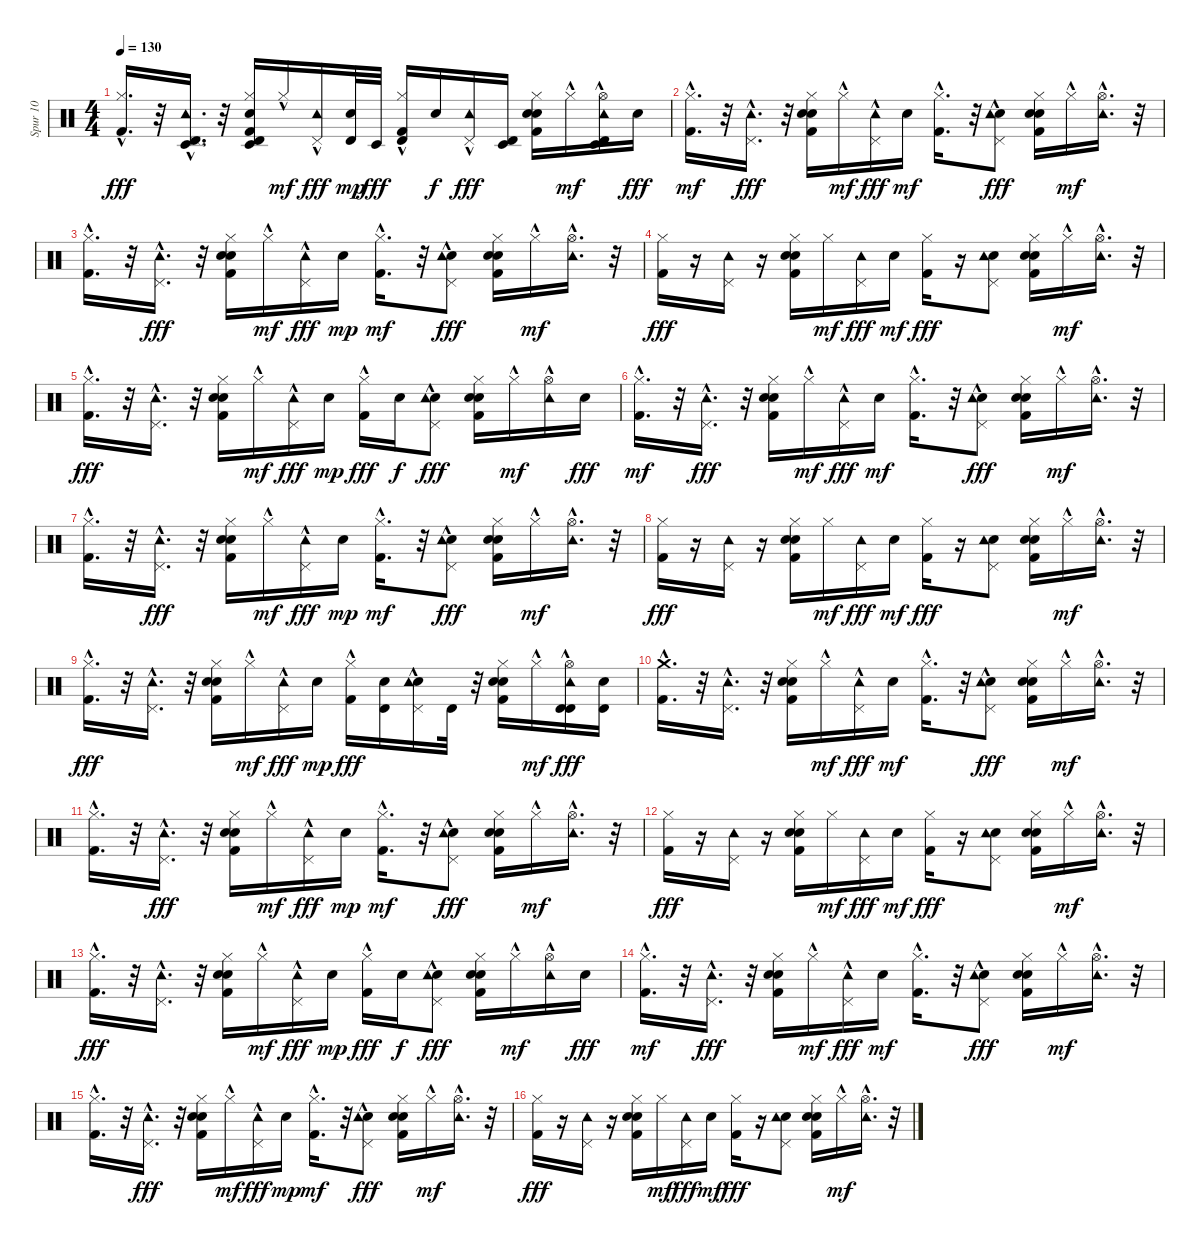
\track ("Spur 10" "Spur 10") {instrument percussion}
\staff {score}
\articulation defaults
\ts (4 4)
\tempo 130
\clef neutral
\ks c
("Hi-Hat (closed)"{hac} "Kick (hit) 2").16{d dy fff} r.32 ("Tambourine (hit)"{hac} "Pedal Hi-Hat (hit)"{hac} "Timbale high (hit)" "Timbale low (hit)").16{d} r.32 ("Hi-Hat (closed)" "Snare (hit) 2" "Kick (hit) 2" "Timbale low (hit)" "Timbale high (hit)").16 "Hi-Hat (closed)"{hac}.16{dy mf} ("Tambourine (hit)"{hac} "Pedal Hi-Hat (hit)"{hac}).16{dy fff} ("Timbale high (hit)" "Electric Snare (hit)").32{dy mp} "Timbale low (hit)".32{dy fff} ("Timbale high (hit)" "Hi-Hat (closed)"{hac} "Kick (hit) 2").16 "Snare (hit) 2".16{dy f} ("Tambourine (hit)"{hac} "Pedal Hi-Hat (hit)"{hac}).16{dy fff} ("Timbale high (hit)" "Timbale low (hit)").16 ("Hand Clap (hit)" "Snare (hit) 2" "Hi-Hat (closed)" "Kick (hit) 2").16 "Hi-Hat (closed)"{hac}.16{dy mf} ("Timbale low (hit)" "Timbale high (hit)" "Tambourine (hit)"{hac} "Hi-Hat (open)"{hac}).16 "Snare (hit) 2".16{dy fff} |
("Kick (hit) 2" "Hi-Hat (closed)"{hac}).16{d dy mf} r.32 ("Tambourine (hit)"{hac} "Pedal Hi-Hat (hit)"{hac}).16{d dy fff} r.32 ("Hand Clap (hit)" "Kick (hit) 2" "Hi-Hat (closed)" "Snare (hit) 2").16 "Hi-Hat (closed)"{hac}.16{dy mf} ("Tambourine (hit)"{hac} "Pedal Hi-Hat (hit)"{hac}).16{dy fff} "Electric Snare (hit)".16{dy mf} ("Kick (hit) 2" "Hi-Hat (closed)"{hac}).16{d} r.32 ("Hand Clap (hit)" "Tambourine (hit)"{hac} "Pedal Hi-Hat (hit)"{hac}).8{dy fff} ("Kick (hit) 2" "Hi-Hat (closed)" "Hand Clap (hit)" "Snare (hit) 2").16 "Hi-Hat (closed)"{hac}.16{dy mf} ("Tambourine (hit)"{hac} "Hi-Hat (open)"{hac}).16{d} r.32 |
("Kick (hit) 2" "Hi-Hat (closed)"{hac}).16{d} r.32 ("Tambourine (hit)"{hac} "Pedal Hi-Hat (hit)"{hac}).16{d dy fff} r.32 ("Hand Clap (hit)" "Hi-Hat (closed)" "Snare (hit) 2" "Kick (hit) 2").16 "Hi-Hat (closed)"{hac}.16{dy mf} ("Tambourine (hit)"{hac} "Pedal Hi-Hat (hit)"{hac}).16{dy fff} "Electric Snare (hit)".16{dy mp} ("Kick (hit) 2" "Hi-Hat (closed)"{hac}).16{d dy mf} r.32 ("Hand Clap (hit)" "Tambourine (hit)"{hac} "Pedal Hi-Hat (hit)"{hac}).8{dy fff} ("Hand Clap (hit)" "Hi-Hat (closed)" "Kick (hit) 2" "Snare (hit) 2").16 "Hi-Hat (closed)"{hac}.16{dy mf} ("Tambourine (hit)"{hac} "Hi-Hat (open)"{hac}).16{d} r.32 |
("Hi-Hat (closed)" "Kick (hit) 2").16{dy fff} r.16 ("Tambourine (hit)" "Pedal Hi-Hat (hit)").16 r.16 ("Hand Clap (hit)" "Snare (hit) 2" "Hi-Hat (closed)" "Kick (hit) 2").16 "Hi-Hat (closed)".16{dy mf} ("Tambourine (hit)" "Pedal Hi-Hat (hit)").16{dy fff} "Electric Snare (hit)".16{dy mf} ("Hi-Hat (closed)" "Kick (hit) 2").16{dy fff} r.16 ("Hand Clap (hit)" "Tambourine (hit)" "Pedal Hi-Hat (hit)").8 ("Hand Clap (hit)" "Snare (hit) 2" "Hi-Hat (closed)" "Kick (hit) 2").16 "Hi-Hat (closed)"{hac}.16{dy mf} ("Tambourine (hit)" "Hi-Hat (open)"{hac}).16{d} r.32 |
("Hi-Hat (closed)"{hac} "Kick (hit) 2").16{d dy fff} r.32 ("Tambourine (hit)"{hac} "Pedal Hi-Hat (hit)"{hac}).16{d} r.32 ("Hand Clap (hit)" "Hi-Hat (closed)" "Snare (hit) 2" "Kick (hit) 2").16 "Hi-Hat (closed)"{hac}.16{dy mf} ("Tambourine (hit)"{hac} "Pedal Hi-Hat (hit)"{hac}).16{dy fff} "Electric Snare (hit)".16{dy mp} ("Hi-Hat (closed)"{hac} "Kick (hit) 2").16{dy fff} "Snare (hit) 2".16{dy f} ("Hand Clap (hit)" "Tambourine (hit)"{hac} "Pedal Hi-Hat (hit)"{hac}).8{dy fff} ("Hand Clap (hit)" "Snare (hit) 2" "Hi-Hat (closed)" "Kick (hit) 2").16 "Hi-Hat (closed)"{hac}.16{dy mf} ("Tambourine (hit)"{hac} "Hi-Hat (open)"{hac}).16 "Snare (hit) 2".16{dy fff} |
("Kick (hit) 2" "Hi-Hat (closed)"{hac}).16{d dy mf} r.32 ("Tambourine (hit)"{hac} "Pedal Hi-Hat (hit)"{hac}).16{d dy fff} r.32 ("Hand Clap (hit)" "Kick (hit) 2" "Hi-Hat (closed)" "Snare (hit) 2").16 "Hi-Hat (closed)"{hac}.16{dy mf} ("Tambourine (hit)"{hac} "Pedal Hi-Hat (hit)"{hac}).16{dy fff} "Electric Snare (hit)".16{dy mf} ("Kick (hit) 2" "Hi-Hat (closed)"{hac}).16{d} r.32 ("Hand Clap (hit)" "Tambourine (hit)"{hac} "Pedal Hi-Hat (hit)"{hac}).8{dy fff} ("Hand Clap (hit)" "Kick (hit) 2" "Hi-Hat (closed)" "Snare (hit) 2").16 "Hi-Hat (closed)"{hac}.16{dy mf} ("Tambourine (hit)"{hac} "Hi-Hat (open)"{hac}).16{d} r.32 |
("Kick (hit) 2" "Hi-Hat (closed)"{hac}).16{d} r.32 ("Tambourine (hit)"{hac} "Pedal Hi-Hat (hit)"{hac}).16{d dy fff} r.32 ("Hand Clap (hit)" "Hi-Hat (closed)" "Snare (hit) 2" "Kick (hit) 2").16 "Hi-Hat (closed)"{hac}.16{dy mf} ("Tambourine (hit)"{hac} "Pedal Hi-Hat (hit)"{hac}).16{dy fff} "Electric Snare (hit)".16{dy mp} ("Kick (hit) 2" "Hi-Hat (closed)"{hac}).16{d dy mf} r.32 ("Hand Clap (hit)" "Tambourine (hit)"{hac} "Pedal Hi-Hat (hit)"{hac}).8{dy fff} ("Hand Clap (hit)" "Hi-Hat (closed)" "Kick (hit) 2" "Snare (hit) 2").16 "Hi-Hat (closed)"{hac}.16{dy mf} ("Tambourine (hit)"{hac} "Hi-Hat (open)"{hac}).16{d} r.32 |
("Hi-Hat (closed)" "Kick (hit) 2").16{dy fff} r.16 ("Tambourine (hit)" "Pedal Hi-Hat (hit)").16 r.16 ("Hand Clap (hit)" "Snare (hit) 2" "Hi-Hat (closed)" "Kick (hit) 2").16 "Hi-Hat (closed)".16{dy mf} ("Tambourine (hit)" "Pedal Hi-Hat (hit)").16{dy fff} "Electric Snare (hit)".16{dy mf} ("Hi-Hat (closed)" "Kick (hit) 2").16{dy fff} r.16 ("Hand Clap (hit)" "Tambourine (hit)" "Pedal Hi-Hat (hit)").8 ("Hand Clap (hit)" "Snare (hit) 2" "Hi-Hat (closed)" "Kick (hit) 2").16 "Hi-Hat (closed)"{hac}.16{dy mf} ("Tambourine (hit)" "Hi-Hat (open)"{hac}).16{d} r.32 |
("Hi-Hat (closed)"{hac} "Kick (hit) 2").16{d dy fff} r.32 ("Tambourine (hit)"{hac} "Pedal Hi-Hat (hit)"{hac}).16{d} r.32 ("Hand Clap (hit)" "Hi-Hat (closed)" "Snare (hit) 2" "Kick (hit) 2").16 "Hi-Hat (closed)"{hac}.16{dy mf} ("Tambourine (hit)"{hac} "Pedal Hi-Hat (hit)"{hac}).16{dy fff} "Electric Snare (hit)".16{dy mp} ("Hi-Hat (closed)"{hac} "Kick (hit) 2").16{dy fff} ("Snare (hit) 2" "Timbale high (hit)").16 ("Hand Clap (hit)" "Tambourine (hit)"{hac} "Pedal Hi-Hat (hit)"{hac}).16 "Timbale high (hit)".32 r.32 ("Hand Clap (hit)" "Snare (hit) 2" "Hi-Hat (closed)" "Kick (hit) 2").16 "Hi-Hat (closed)"{hac}.16{dy mf} ("Timbale high (hit)" "Tambourine (hit)"{hac} "Hi-Hat (open)"{hac} "Timbale high (hit)").16{dy fff} ("Snare (hit) 2" "Timbale high (hit)").16 |
("Crash medium (hit)"{hac} "Kick (hit) 2").16{d} r.32 ("Tambourine (hit)"{hac} "Pedal Hi-Hat (hit)"{hac}).16{d} r.32 ("Hand Clap (hit)" "Kick (hit) 2" "Hi-Hat (closed)" "Snare (hit) 2").16 "Hi-Hat (closed)"{hac}.16{dy mf} ("Tambourine (hit)"{hac} "Pedal Hi-Hat (hit)"{hac}).16{dy fff} "Electric Snare (hit)".16{dy mf} ("Kick (hit) 2" "Hi-Hat (closed)"{hac}).16{d} r.32 ("Hand Clap (hit)" "Tambourine (hit)"{hac} "Pedal Hi-Hat (hit)"{hac}).8{dy fff} ("Hand Clap (hit)" "Kick (hit) 2" "Hi-Hat (closed)" "Snare (hit) 2").16 "Hi-Hat (closed)"{hac}.16{dy mf} ("Tambourine (hit)"{hac} "Hi-Hat (open)"{hac}).16{d} r.32 |
("Kick (hit) 2" "Hi-Hat (closed)"{hac}).16{d} r.32 ("Tambourine (hit)"{hac} "Pedal Hi-Hat (hit)"{hac}).16{d dy fff} r.32 ("Hand Clap (hit)" "Hi-Hat (closed)" "Snare (hit) 2" "Kick (hit) 2").16 "Hi-Hat (closed)"{hac}.16{dy mf} ("Tambourine (hit)"{hac} "Pedal Hi-Hat (hit)"{hac}).16{dy fff} "Electric Snare (hit)".16{dy mp} ("Kick (hit) 2" "Hi-Hat (closed)"{hac}).16{d dy mf} r.32 ("Hand Clap (hit)" "Tambourine (hit)"{hac} "Pedal Hi-Hat (hit)"{hac}).8{dy fff} ("Hand Clap (hit)" "Hi-Hat (closed)" "Kick (hit) 2" "Snare (hit) 2").16 "Hi-Hat (closed)"{hac}.16{dy mf} ("Tambourine (hit)"{hac} "Hi-Hat (open)"{hac}).16{d} r.32 |
("Hi-Hat (closed)" "Kick (hit) 2").16{dy fff} r.16 ("Tambourine (hit)" "Pedal Hi-Hat (hit)").16 r.16 ("Hand Clap (hit)" "Snare (hit) 2" "Hi-Hat (closed)" "Kick (hit) 2").16 "Hi-Hat (closed)".16{dy mf} ("Tambourine (hit)" "Pedal Hi-Hat (hit)").16{dy fff} "Electric Snare (hit)".16{dy mf} ("Hi-Hat (closed)" "Kick (hit) 2").16{dy fff} r.16 ("Hand Clap (hit)" "Tambourine (hit)" "Pedal Hi-Hat (hit)").8 ("Hand Clap (hit)" "Snare (hit) 2" "Hi-Hat (closed)" "Kick (hit) 2").16 "Hi-Hat (closed)"{hac}.16{dy mf} ("Tambourine (hit)" "Hi-Hat (open)"{hac}).16{d} r.32 |
("Hi-Hat (closed)"{hac} "Kick (hit) 2").16{d dy fff} r.32 ("Tambourine (hit)"{hac} "Pedal Hi-Hat (hit)"{hac}).16{d} r.32 ("Hand Clap (hit)" "Hi-Hat (closed)" "Snare (hit) 2" "Kick (hit) 2").16 "Hi-Hat (closed)"{hac}.16{dy mf} ("Tambourine (hit)"{hac} "Pedal Hi-Hat (hit)"{hac}).16{dy fff} "Electric Snare (hit)".16{dy mp} ("Hi-Hat (closed)"{hac} "Kick (hit) 2").16{dy fff} "Snare (hit) 2".16{dy f} ("Hand Clap (hit)" "Tambourine (hit)"{hac} "Pedal Hi-Hat (hit)"{hac}).8{dy fff} ("Hand Clap (hit)" "Snare (hit) 2" "Hi-Hat (closed)" "Kick (hit) 2").16 "Hi-Hat (closed)"{hac}.16{dy mf} ("Tambourine (hit)"{hac} "Hi-Hat (open)"{hac}).16 "Snare (hit) 2".16{dy fff} |
("Kick (hit) 2" "Hi-Hat (closed)"{hac}).16{d dy mf} r.32 ("Tambourine (hit)"{hac} "Pedal Hi-Hat (hit)"{hac}).16{d dy fff} r.32 ("Hand Clap (hit)" "Kick (hit) 2" "Hi-Hat (closed)" "Snare (hit) 2").16 "Hi-Hat (closed)"{hac}.16{dy mf} ("Tambourine (hit)"{hac} "Pedal Hi-Hat (hit)"{hac}).16{dy fff} "Electric Snare (hit)".16{dy mf} ("Kick (hit) 2" "Hi-Hat (closed)"{hac}).16{d} r.32 ("Hand Clap (hit)" "Tambourine (hit)"{hac} "Pedal Hi-Hat (hit)"{hac}).8{dy fff} ("Hand Clap (hit)" "Kick (hit) 2" "Hi-Hat (closed)" "Snare (hit) 2").16 "Hi-Hat (closed)"{hac}.16{dy mf} ("Tambourine (hit)"{hac} "Hi-Hat (open)"{hac}).16{d} r.32 |
("Kick (hit) 2" "Hi-Hat (closed)"{hac}).16{d} r.32 ("Tambourine (hit)"{hac} "Pedal Hi-Hat (hit)"{hac}).16{d dy fff} r.32 ("Hand Clap (hit)" "Hi-Hat (closed)" "Snare (hit) 2" "Kick (hit) 2").16 "Hi-Hat (closed)"{hac}.16{dy mf} ("Tambourine (hit)"{hac} "Pedal Hi-Hat (hit)"{hac}).16{dy fff} "Electric Snare (hit)".16{dy mp} ("Kick (hit) 2" "Hi-Hat (closed)"{hac}).16{d dy mf} r.32 ("Hand Clap (hit)" "Tambourine (hit)"{hac} "Pedal Hi-Hat (hit)"{hac}).8{dy fff} ("Hand Clap (hit)" "Hi-Hat (closed)" "Kick (hit) 2" "Snare (hit) 2").16 "Hi-Hat (closed)"{hac}.16{dy mf} ("Tambourine (hit)"{hac} "Hi-Hat (open)"{hac}).16{d} r.32 |
("Hi-Hat (closed)" "Kick (hit) 2").16{dy fff} r.16 ("Tambourine (hit)" "Pedal Hi-Hat (hit)").16 r.16 ("Hand Clap (hit)" "Snare (hit) 2" "Hi-Hat (closed)" "Kick (hit) 2").16 "Hi-Hat (closed)".16{dy mf} ("Tambourine (hit)" "Pedal Hi-Hat (hit)").16{dy fff} "Electric Snare (hit)".16{dy mf} ("Hi-Hat (closed)" "Kick (hit) 2").16{dy fff} r.16 ("Hand Clap (hit)" "Tambourine (hit)" "Pedal Hi-Hat (hit)").8 ("Hand Clap (hit)" "Snare (hit) 2" "Hi-Hat (closed)" "Kick (hit) 2").16 "Hi-Hat (closed)"{hac}.16{dy mf} ("Tambourine (hit)" "Hi-Hat (open)"{hac}).16{d} r.32
